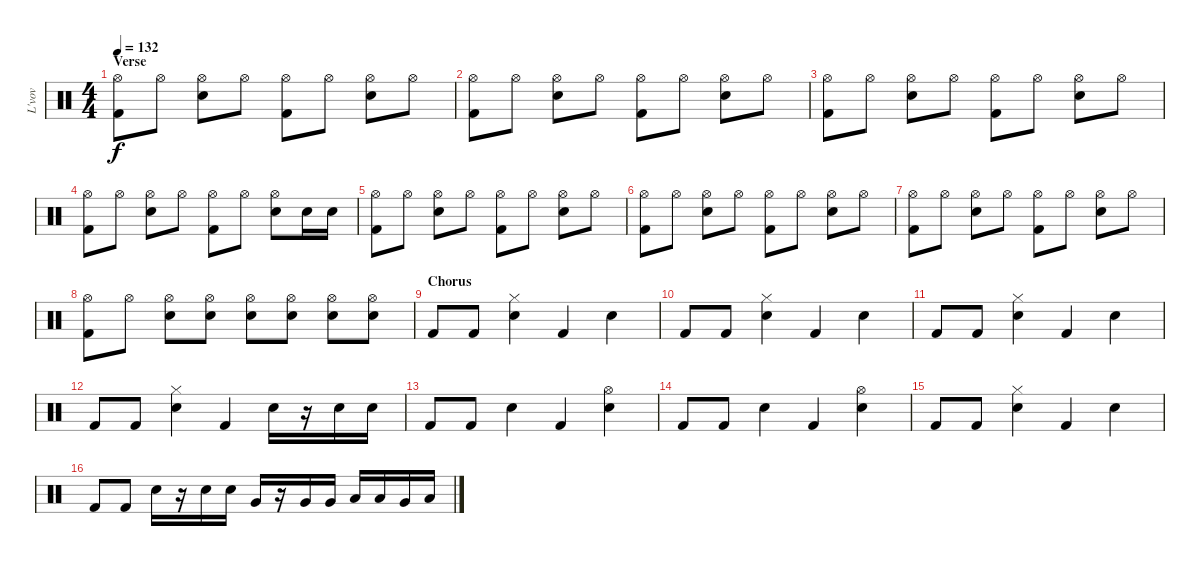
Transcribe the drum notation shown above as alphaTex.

\track ("L'vov" "L'vov") {instrument percussion}
\staff {score}
\articulation defaults
\ts (4 4)
\section ("" "Verse")
\tempo 132
\clef neutral
\ks c
("Hi-Hat (open)" "Kick (hit) 2").8{dy f} "Hi-Hat (open)".8 ("Hi-Hat (open)" "Snare (hit) 2").8 "Hi-Hat (open)".8 ("Hi-Hat (open)" "Kick (hit) 2").8 "Hi-Hat (open)".8 ("Hi-Hat (open)" "Snare (hit) 2").8 "Hi-Hat (open)".8 |
("Hi-Hat (open)" "Kick (hit) 2").8 "Hi-Hat (open)".8 ("Hi-Hat (open)" "Snare (hit) 2").8 "Hi-Hat (open)".8 ("Hi-Hat (open)" "Kick (hit) 2").8 "Hi-Hat (open)".8 ("Hi-Hat (open)" "Snare (hit) 2").8 "Hi-Hat (open)".8 |
("Hi-Hat (open)" "Kick (hit) 2").8 "Hi-Hat (open)".8 ("Hi-Hat (open)" "Snare (hit) 2").8 "Hi-Hat (open)".8 ("Hi-Hat (open)" "Kick (hit) 2").8 "Hi-Hat (open)".8 ("Hi-Hat (open)" "Snare (hit) 2").8 "Hi-Hat (open)".8 |
("Hi-Hat (open)" "Kick (hit) 2").8 "Hi-Hat (open)".8 ("Hi-Hat (open)" "Snare (hit) 2").8 "Hi-Hat (open)".8 ("Hi-Hat (open)" "Kick (hit) 2").8 "Hi-Hat (open)".8 ("Hi-Hat (open)" "Snare (hit) 2").8 "Snare (hit) 2".16 "Snare (hit) 2".16 |
("Hi-Hat (open)" "Kick (hit) 2").8 "Hi-Hat (open)".8 ("Hi-Hat (open)" "Snare (hit) 2").8 "Hi-Hat (open)".8 ("Hi-Hat (open)" "Kick (hit) 2").8 "Hi-Hat (open)".8 ("Hi-Hat (open)" "Snare (hit) 2").8 "Hi-Hat (open)".8 |
("Hi-Hat (open)" "Kick (hit) 2").8 "Hi-Hat (open)".8 ("Hi-Hat (open)" "Snare (hit) 2").8 "Hi-Hat (open)".8 ("Hi-Hat (open)" "Kick (hit) 2").8 "Hi-Hat (open)".8 ("Hi-Hat (open)" "Snare (hit) 2").8 "Hi-Hat (open)".8 |
("Hi-Hat (open)" "Kick (hit) 2").8 "Hi-Hat (open)".8 ("Hi-Hat (open)" "Snare (hit) 2").8 "Hi-Hat (open)".8 ("Hi-Hat (open)" "Kick (hit) 2").8 "Hi-Hat (open)".8 ("Hi-Hat (open)" "Snare (hit) 2").8 "Hi-Hat (open)".8 |
("Hi-Hat (open)" "Kick (hit) 2").8 "Hi-Hat (open)".8 ("Hi-Hat (open)" "Snare (hit) 2").8 ("Hi-Hat (open)" "Snare (hit) 2").8 ("Hi-Hat (open)" "Snare (hit) 2").8 ("Hi-Hat (open)" "Snare (hit) 2").8 ("Hi-Hat (open)" "Snare (hit) 2").8 ("Hi-Hat (open)" "Snare (hit) 2").8 |
\section ("" "Chorus")
"Kick (hit) 2".8 "Kick (hit) 2".8 ("Snare (hit) 2" "Hi-Hat (closed)").4 "Kick (hit) 2".4 "Snare (hit) 2".4 |
"Kick (hit) 2".8 "Kick (hit) 2".8 ("Snare (hit) 2" "Hi-Hat (closed)").4 "Kick (hit) 2".4 "Snare (hit) 2".4 |
"Kick (hit) 2".8 "Kick (hit) 2".8 ("Snare (hit) 2" "Hi-Hat (closed)").4 "Kick (hit) 2".4 "Snare (hit) 2".4 |
"Kick (hit) 2".8 "Kick (hit) 2".8 ("Snare (hit) 2" "Hi-Hat (closed)").4 "Kick (hit) 2".4 "Snare (hit) 2".16 r.16 "Snare (hit) 2".16 "Snare (hit) 2".16 |
"Kick (hit) 2".8 "Kick (hit) 2".8 "Snare (hit) 2".4 "Kick (hit) 2".4 ("Snare (hit) 2" "Hi-Hat (open)").4 |
"Kick (hit) 2".8 "Kick (hit) 2".8 "Snare (hit) 2".4 "Kick (hit) 2".4 ("Snare (hit) 2" "Hi-Hat (open)").4 |
"Kick (hit) 2".8 "Kick (hit) 2".8 ("Snare (hit) 2" "Hi-Hat (closed)").4 "Kick (hit) 2".4 "Snare (hit) 2".4 |
"Kick (hit) 2".8 "Kick (hit) 2".8 "Snare (hit) 2".16 r.16 "Snare (hit) 2".16 "Snare (hit) 2".16 "Very Low Tom (hit)".16 r.16 "Very Low Tom (hit)".16 "Very Low Tom (hit)".16 "Low Floor Tom (hit)".16 "Low Floor Tom (hit)".16 "Very Low Tom (hit)".16 "Low Tom (hit)".16
